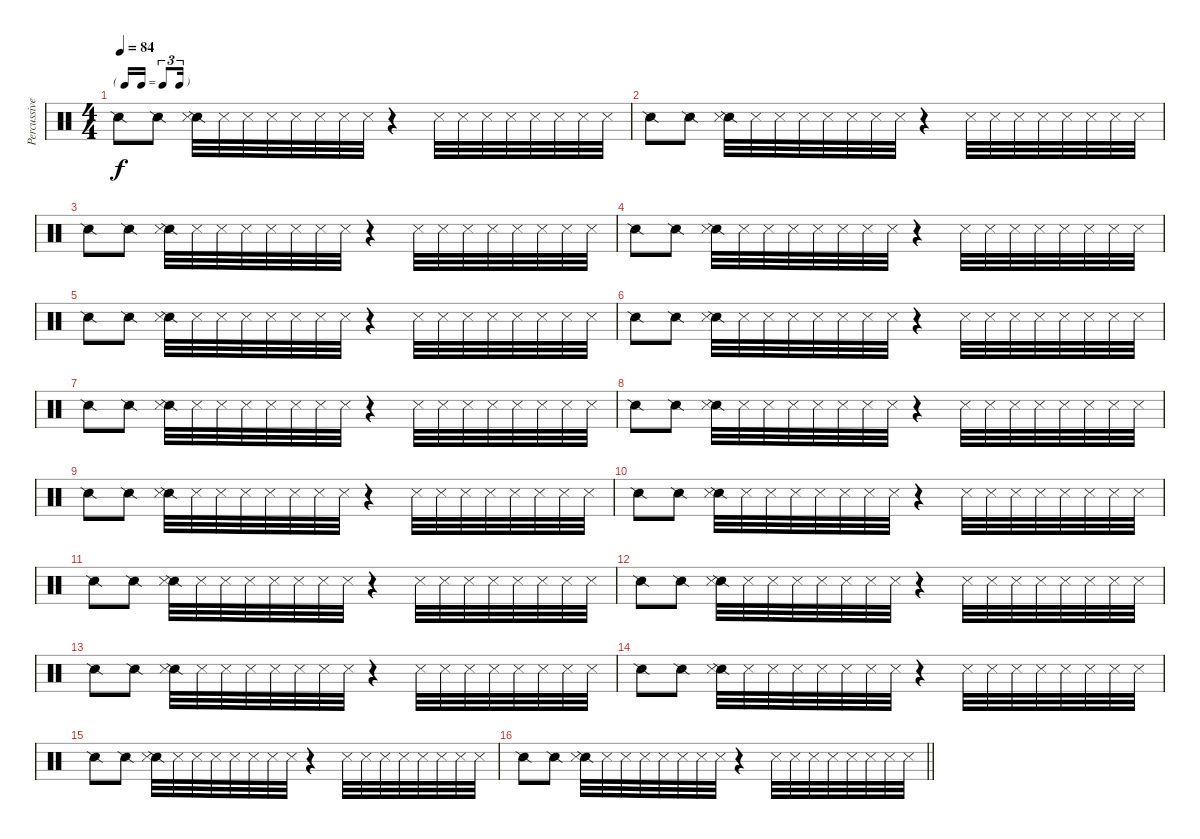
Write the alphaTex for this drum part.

\track ("Percussive Over-Dubs" "Percussive") {instrument percussion}
\staff {score}
\articulation defaults
\ts (4 4)
\tf triplet16th
\tempo 84
\clef neutral
\ks c "Snare (side stick) 2".8{dy f} "Snare (side stick) 2".8
("Snare (side stick) 2" "Metronome (hit)").32 "Metronome (hit)".32 "Metronome (hit)".32 "Metronome (hit)".32 "Metronome (hit)".32 "Metronome (hit)".32 "Metronome (hit)".32 "Metronome (hit)".32 r.4 "Metronome (hit)".32 "Metronome (hit)".32 "Metronome (hit)".32 "Metronome (hit)".32 "Metronome (hit)".32 "Metronome (hit)".32 "Metronome (hit)".32 "Metronome (hit)".32 |
"Snare (side stick) 2".8 "Snare (side stick) 2".8 ("Snare (side stick) 2" "Metronome (hit)").32 "Metronome (hit)".32 "Metronome (hit)".32 "Metronome (hit)".32 "Metronome (hit)".32 "Metronome (hit)".32 "Metronome (hit)".32 "Metronome (hit)".32 r.4 "Metronome (hit)".32 "Metronome (hit)".32 "Metronome (hit)".32 "Metronome (hit)".32 "Metronome (hit)".32 "Metronome (hit)".32 "Metronome (hit)".32 "Metronome (hit)".32 |
"Snare (side stick) 2".8 "Snare (side stick) 2".8 ("Snare (side stick) 2" "Metronome (hit)").32 "Metronome (hit)".32 "Metronome (hit)".32 "Metronome (hit)".32 "Metronome (hit)".32 "Metronome (hit)".32 "Metronome (hit)".32 "Metronome (hit)".32 r.4 "Metronome (hit)".32 "Metronome (hit)".32 "Metronome (hit)".32 "Metronome (hit)".32 "Metronome (hit)".32 "Metronome (hit)".32 "Metronome (hit)".32 "Metronome (hit)".32 |
"Snare (side stick) 2".8 "Snare (side stick) 2".8 ("Snare (side stick) 2" "Metronome (hit)").32 "Metronome (hit)".32 "Metronome (hit)".32 "Metronome (hit)".32 "Metronome (hit)".32 "Metronome (hit)".32 "Metronome (hit)".32 "Metronome (hit)".32 r.4 "Metronome (hit)".32 "Metronome (hit)".32 "Metronome (hit)".32 "Metronome (hit)".32 "Metronome (hit)".32 "Metronome (hit)".32 "Metronome (hit)".32 "Metronome (hit)".32 |
"Snare (side stick) 2".8 "Snare (side stick) 2".8 ("Snare (side stick) 2" "Metronome (hit)").32 "Metronome (hit)".32 "Metronome (hit)".32 "Metronome (hit)".32 "Metronome (hit)".32 "Metronome (hit)".32 "Metronome (hit)".32 "Metronome (hit)".32 r.4 "Metronome (hit)".32 "Metronome (hit)".32 "Metronome (hit)".32 "Metronome (hit)".32 "Metronome (hit)".32 "Metronome (hit)".32 "Metronome (hit)".32 "Metronome (hit)".32 |
"Snare (side stick) 2".8 "Snare (side stick) 2".8 ("Snare (side stick) 2" "Metronome (hit)").32 "Metronome (hit)".32 "Metronome (hit)".32 "Metronome (hit)".32 "Metronome (hit)".32 "Metronome (hit)".32 "Metronome (hit)".32 "Metronome (hit)".32 r.4 "Metronome (hit)".32 "Metronome (hit)".32 "Metronome (hit)".32 "Metronome (hit)".32 "Metronome (hit)".32 "Metronome (hit)".32 "Metronome (hit)".32 "Metronome (hit)".32 |
"Snare (side stick) 2".8 "Snare (side stick) 2".8 ("Snare (side stick) 2" "Metronome (hit)").32 "Metronome (hit)".32 "Metronome (hit)".32 "Metronome (hit)".32 "Metronome (hit)".32 "Metronome (hit)".32 "Metronome (hit)".32 "Metronome (hit)".32 r.4 "Metronome (hit)".32 "Metronome (hit)".32 "Metronome (hit)".32 "Metronome (hit)".32 "Metronome (hit)".32 "Metronome (hit)".32 "Metronome (hit)".32 "Metronome (hit)".32 |
"Snare (side stick) 2".8 "Snare (side stick) 2".8 ("Snare (side stick) 2" "Metronome (hit)").32 "Metronome (hit)".32 "Metronome (hit)".32 "Metronome (hit)".32 "Metronome (hit)".32 "Metronome (hit)".32 "Metronome (hit)".32 "Metronome (hit)".32 r.4 "Metronome (hit)".32 "Metronome (hit)".32 "Metronome (hit)".32 "Metronome (hit)".32 "Metronome (hit)".32 "Metronome (hit)".32 "Metronome (hit)".32 "Metronome (hit)".32 |
"Snare (side stick) 2".8 "Snare (side stick) 2".8 ("Snare (side stick) 2" "Metronome (hit)").32 "Metronome (hit)".32 "Metronome (hit)".32 "Metronome (hit)".32 "Metronome (hit)".32 "Metronome (hit)".32 "Metronome (hit)".32 "Metronome (hit)".32 r.4 "Metronome (hit)".32 "Metronome (hit)".32 "Metronome (hit)".32 "Metronome (hit)".32 "Metronome (hit)".32 "Metronome (hit)".32 "Metronome (hit)".32 "Metronome (hit)".32 |
"Snare (side stick) 2".8 "Snare (side stick) 2".8 ("Snare (side stick) 2" "Metronome (hit)").32 "Metronome (hit)".32 "Metronome (hit)".32 "Metronome (hit)".32 "Metronome (hit)".32 "Metronome (hit)".32 "Metronome (hit)".32 "Metronome (hit)".32 r.4 "Metronome (hit)".32 "Metronome (hit)".32 "Metronome (hit)".32 "Metronome (hit)".32 "Metronome (hit)".32 "Metronome (hit)".32 "Metronome (hit)".32 "Metronome (hit)".32 |
"Snare (side stick) 2".8 "Snare (side stick) 2".8 ("Snare (side stick) 2" "Metronome (hit)").32 "Metronome (hit)".32 "Metronome (hit)".32 "Metronome (hit)".32 "Metronome (hit)".32 "Metronome (hit)".32 "Metronome (hit)".32 "Metronome (hit)".32 r.4 "Metronome (hit)".32 "Metronome (hit)".32 "Metronome (hit)".32 "Metronome (hit)".32 "Metronome (hit)".32 "Metronome (hit)".32 "Metronome (hit)".32 "Metronome (hit)".32 |
"Snare (side stick) 2".8 "Snare (side stick) 2".8 ("Snare (side stick) 2" "Metronome (hit)").32 "Metronome (hit)".32 "Metronome (hit)".32 "Metronome (hit)".32 "Metronome (hit)".32 "Metronome (hit)".32 "Metronome (hit)".32 "Metronome (hit)".32 r.4 "Metronome (hit)".32 "Metronome (hit)".32 "Metronome (hit)".32 "Metronome (hit)".32 "Metronome (hit)".32 "Metronome (hit)".32 "Metronome (hit)".32 "Metronome (hit)".32 |
"Snare (side stick) 2".8 "Snare (side stick) 2".8 ("Snare (side stick) 2" "Metronome (hit)").32 "Metronome (hit)".32 "Metronome (hit)".32 "Metronome (hit)".32 "Metronome (hit)".32 "Metronome (hit)".32 "Metronome (hit)".32 "Metronome (hit)".32 r.4 "Metronome (hit)".32 "Metronome (hit)".32 "Metronome (hit)".32 "Metronome (hit)".32 "Metronome (hit)".32 "Metronome (hit)".32 "Metronome (hit)".32 "Metronome (hit)".32 |
"Snare (side stick) 2".8 "Snare (side stick) 2".8 ("Snare (side stick) 2" "Metronome (hit)").32 "Metronome (hit)".32 "Metronome (hit)".32 "Metronome (hit)".32 "Metronome (hit)".32 "Metronome (hit)".32 "Metronome (hit)".32 "Metronome (hit)".32 r.4 "Metronome (hit)".32 "Metronome (hit)".32 "Metronome (hit)".32 "Metronome (hit)".32 "Metronome (hit)".32 "Metronome (hit)".32 "Metronome (hit)".32 "Metronome (hit)".32 |
"Snare (side stick) 2".8 "Snare (side stick) 2".8 ("Snare (side stick) 2" "Metronome (hit)").32 "Metronome (hit)".32 "Metronome (hit)".32 "Metronome (hit)".32 "Metronome (hit)".32 "Metronome (hit)".32 "Metronome (hit)".32 "Metronome (hit)".32 r.4 "Metronome (hit)".32 "Metronome (hit)".32 "Metronome (hit)".32 "Metronome (hit)".32 "Metronome (hit)".32 "Metronome (hit)".32 "Metronome (hit)".32 "Metronome (hit)".32 |
\barLineRight lightlight "Snare (side stick) 2".8 "Snare (side stick) 2".8
("Snare (side stick) 2" "Metronome (hit)").32 "Metronome (hit)".32 "Metronome (hit)".32 "Metronome (hit)".32 "Metronome (hit)".32 "Metronome (hit)".32 "Metronome (hit)".32 "Metronome (hit)".32 r.4 "Metronome (hit)".32 "Metronome (hit)".32 "Metronome (hit)".32 "Metronome (hit)".32 "Metronome (hit)".32 "Metronome (hit)".32 "Metronome (hit)".32 "Metronome (hit)".32
